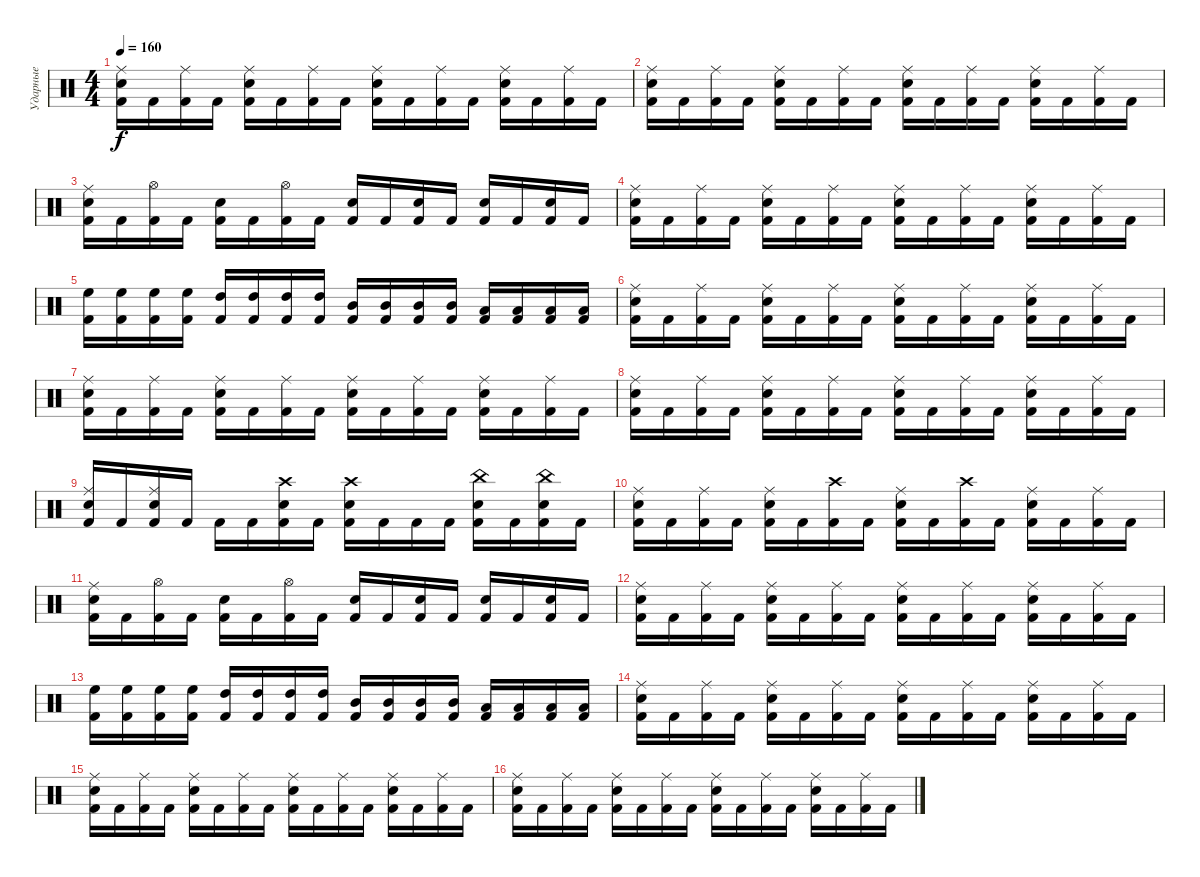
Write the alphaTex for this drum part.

\track ("Ударные" "Ударные") {instrument percussion}
\staff {score}
\articulation defaults
\ts (4 4)
\tempo 160
\clef neutral
\ks c
("Kick (hit) 2" "Ride (middle)" "Snare (hit) 2").16{dy f} "Kick (hit) 2".16 ("Kick (hit) 2" "Ride (middle)").16 "Kick (hit) 2".16 ("Kick (hit) 2" "Ride (middle)" "Snare (hit) 2").16 "Kick (hit) 2".16 ("Kick (hit) 2" "Ride (middle)").16 "Kick (hit) 2".16 ("Kick (hit) 2" "Ride (middle)" "Snare (hit) 2").16 "Kick (hit) 2".16 ("Kick (hit) 2" "Ride (middle)").16 "Kick (hit) 2".16 ("Kick (hit) 2" "Ride (middle)" "Snare (hit) 2").16 "Kick (hit) 2".16 ("Kick (hit) 2" "Ride (middle)").16 "Kick (hit) 2".16 |
("Kick (hit) 2" "Ride (middle)" "Snare (hit) 2").16 "Kick (hit) 2".16 ("Kick (hit) 2" "Ride (middle)").16 "Kick (hit) 2".16 ("Kick (hit) 2" "Ride (middle)" "Snare (hit) 2").16 "Kick (hit) 2".16 ("Kick (hit) 2" "Ride (middle)").16 "Kick (hit) 2".16 ("Kick (hit) 2" "Ride (middle)" "Snare (hit) 2").16 "Kick (hit) 2".16 ("Kick (hit) 2" "Ride (middle)").16 "Kick (hit) 2".16 ("Kick (hit) 2" "Ride (middle)" "Snare (hit) 2").16 "Kick (hit) 2".16 ("Kick (hit) 2" "Ride (middle)").16 "Kick (hit) 2".16 |
("Kick (hit) 2" "Ride (middle)" "Snare (hit) 2").16 "Kick (hit) 2".16 ("Kick (hit) 2" "Hi-Hat (open)").16 "Kick (hit) 2".16 ("Kick (hit) 2" "Snare (hit) 2").16 "Kick (hit) 2".16 ("Kick (hit) 2" "Hi-Hat (open)").16 "Kick (hit) 2".16 ("Kick (hit) 2" "Snare (hit) 2").16 "Kick (hit) 2".16 ("Kick (hit) 2" "Snare (hit) 2").16 "Kick (hit) 2".16 ("Kick (hit) 2" "Snare (hit) 2").16 "Kick (hit) 2".16 ("Kick (hit) 2" "Snare (hit) 2").16 "Kick (hit) 2".16 |
("Kick (hit) 2" "Ride (middle)" "Snare (hit) 2").16 "Kick (hit) 2".16 ("Kick (hit) 2" "Ride (middle)").16 "Kick (hit) 2".16 ("Kick (hit) 2" "Ride (middle)" "Snare (hit) 2").16 "Kick (hit) 2".16 ("Kick (hit) 2" "Ride (middle)").16 "Kick (hit) 2".16 ("Kick (hit) 2" "Ride (middle)" "Snare (hit) 2").16 "Kick (hit) 2".16 ("Kick (hit) 2" "Ride (middle)").16 "Kick (hit) 2".16 ("Kick (hit) 2" "Ride (middle)" "Snare (hit) 2").16 "Kick (hit) 2".16 ("Kick (hit) 2" "Ride (middle)").16 "Kick (hit) 2".16 |
("Kick (hit) 2" "High Floor Tom (hit)").16 ("Kick (hit) 2" "High Floor Tom (hit)").16 ("Kick (hit) 2" "High Floor Tom (hit)").16 ("Kick (hit) 2" "High Floor Tom (hit)").16 ("Kick (hit) 2" "High Tom (hit)").16 ("Kick (hit) 2" "High Tom (hit)").16 ("Kick (hit) 2" "High Tom (hit)").16 ("Kick (hit) 2" "High Tom (hit)").16 ("Kick (hit) 2" "Mid Tom (hit)").16 ("Kick (hit) 2" "Mid Tom (hit)").16 ("Kick (hit) 2" "Mid Tom (hit)").16 ("Kick (hit) 2" "Mid Tom (hit)").16 ("Kick (hit) 2" "Low Tom (hit)").16 ("Kick (hit) 2" "Low Tom (hit)").16 ("Kick (hit) 2" "Low Tom (hit)").16 ("Kick (hit) 2" "Low Tom (hit)").16 |
("Kick (hit) 2" "Ride (middle)" "Snare (hit) 2").16 "Kick (hit) 2".16 ("Kick (hit) 2" "Ride (middle)").16 "Kick (hit) 2".16 ("Kick (hit) 2" "Ride (middle)" "Snare (hit) 2").16 "Kick (hit) 2".16 ("Kick (hit) 2" "Ride (middle)").16 "Kick (hit) 2".16 ("Kick (hit) 2" "Ride (middle)" "Snare (hit) 2").16 "Kick (hit) 2".16 ("Kick (hit) 2" "Ride (middle)").16 "Kick (hit) 2".16 ("Kick (hit) 2" "Ride (middle)" "Snare (hit) 2").16 "Kick (hit) 2".16 ("Kick (hit) 2" "Ride (middle)").16 "Kick (hit) 2".16 |
("Kick (hit) 2" "Ride (middle)" "Snare (hit) 2").16 "Kick (hit) 2".16 ("Kick (hit) 2" "Ride (middle)").16 "Kick (hit) 2".16 ("Kick (hit) 2" "Ride (middle)" "Snare (hit) 2").16 "Kick (hit) 2".16 ("Kick (hit) 2" "Ride (middle)").16 "Kick (hit) 2".16 ("Kick (hit) 2" "Ride (middle)" "Snare (hit) 2").16 "Kick (hit) 2".16 ("Kick (hit) 2" "Ride (middle)").16 "Kick (hit) 2".16 ("Kick (hit) 2" "Ride (middle)" "Snare (hit) 2").16 "Kick (hit) 2".16 ("Kick (hit) 2" "Ride (middle)").16 "Kick (hit) 2".16 |
("Kick (hit) 2" "Ride (middle)" "Snare (hit) 2").16 "Kick (hit) 2".16 ("Kick (hit) 2" "Ride (middle)").16 "Kick (hit) 2".16 ("Kick (hit) 2" "Ride (middle)" "Snare (hit) 2").16 "Kick (hit) 2".16 ("Kick (hit) 2" "Ride (middle)").16 "Kick (hit) 2".16 ("Kick (hit) 2" "Ride (middle)" "Snare (hit) 2").16 "Kick (hit) 2".16 ("Kick (hit) 2" "Ride (middle)").16 "Kick (hit) 2".16 ("Kick (hit) 2" "Ride (middle)" "Snare (hit) 2").16 "Kick (hit) 2".16 ("Kick (hit) 2" "Ride (middle)").16 "Kick (hit) 2".16 |
("Kick (hit) 2" "Snare (hit) 2" "Ride (middle)").16 "Kick (hit) 2".16 ("Kick (hit) 2" "Snare (hit) 2" "Ride (middle)").16 "Kick (hit) 2".16 "Kick (hit) 2".16 "Kick (hit) 2".16 ("Kick (hit) 2" "Snare (hit) 2" "Crash high (hit)").16 "Kick (hit) 2".16 ("Kick (hit) 2" "Snare (hit) 2" "Crash high (hit)").16 "Kick (hit) 2".16 "Kick (hit) 2".16 "Kick (hit) 2".16 ("Kick (hit) 2" "Snare (hit) 2" "China (hit)").16 "Kick (hit) 2".16 ("Kick (hit) 2" "Snare (hit) 2" "China (hit)").16 "Kick (hit) 2".16 |
("Kick (hit) 2" "Ride (middle)" "Snare (hit) 2").16 "Kick (hit) 2".16 ("Kick (hit) 2" "Ride (middle)").16 "Kick (hit) 2".16 ("Kick (hit) 2" "Ride (middle)" "Snare (hit) 2").16 "Kick (hit) 2".16 ("Kick (hit) 2" "Crash high (hit)").16 "Kick (hit) 2".16 ("Kick (hit) 2" "Ride (middle)" "Snare (hit) 2").16 "Kick (hit) 2".16 ("Kick (hit) 2" "Crash high (hit)").16 "Kick (hit) 2".16 ("Kick (hit) 2" "Ride (middle)" "Snare (hit) 2").16 "Kick (hit) 2".16 ("Kick (hit) 2" "Ride (middle)").16 "Kick (hit) 2".16 |
("Kick (hit) 2" "Ride (middle)" "Snare (hit) 2").16 "Kick (hit) 2".16 ("Kick (hit) 2" "Hi-Hat (open)").16 "Kick (hit) 2".16 ("Kick (hit) 2" "Snare (hit) 2").16 "Kick (hit) 2".16 ("Kick (hit) 2" "Hi-Hat (open)").16 "Kick (hit) 2".16 ("Kick (hit) 2" "Snare (hit) 2").16 "Kick (hit) 2".16 ("Kick (hit) 2" "Snare (hit) 2").16 "Kick (hit) 2".16 ("Kick (hit) 2" "Snare (hit) 2").16 "Kick (hit) 2".16 ("Kick (hit) 2" "Snare (hit) 2").16 "Kick (hit) 2".16 |
("Kick (hit) 2" "Ride (middle)" "Snare (hit) 2").16 "Kick (hit) 2".16 ("Kick (hit) 2" "Ride (middle)").16 "Kick (hit) 2".16 ("Kick (hit) 2" "Ride (middle)" "Snare (hit) 2").16 "Kick (hit) 2".16 ("Kick (hit) 2" "Ride (middle)").16 "Kick (hit) 2".16 ("Kick (hit) 2" "Ride (middle)" "Snare (hit) 2").16 "Kick (hit) 2".16 ("Kick (hit) 2" "Ride (middle)").16 "Kick (hit) 2".16 ("Kick (hit) 2" "Ride (middle)" "Snare (hit) 2").16 "Kick (hit) 2".16 ("Kick (hit) 2" "Ride (middle)").16 "Kick (hit) 2".16 |
("Kick (hit) 2" "High Floor Tom (hit)").16 ("Kick (hit) 2" "High Floor Tom (hit)").16 ("Kick (hit) 2" "High Floor Tom (hit)").16 ("Kick (hit) 2" "High Floor Tom (hit)").16 ("Kick (hit) 2" "High Tom (hit)").16 ("Kick (hit) 2" "High Tom (hit)").16 ("Kick (hit) 2" "High Tom (hit)").16 ("Kick (hit) 2" "High Tom (hit)").16 ("Kick (hit) 2" "Mid Tom (hit)").16 ("Kick (hit) 2" "Mid Tom (hit)").16 ("Kick (hit) 2" "Mid Tom (hit)").16 ("Kick (hit) 2" "Mid Tom (hit)").16 ("Kick (hit) 2" "Low Tom (hit)").16 ("Kick (hit) 2" "Low Tom (hit)").16 ("Kick (hit) 2" "Low Tom (hit)").16 ("Kick (hit) 2" "Low Tom (hit)").16 |
("Kick (hit) 2" "Ride (middle)" "Snare (hit) 2").16 "Kick (hit) 2".16 ("Kick (hit) 2" "Ride (middle)").16 "Kick (hit) 2".16 ("Kick (hit) 2" "Ride (middle)" "Snare (hit) 2").16 "Kick (hit) 2".16 ("Kick (hit) 2" "Ride (middle)").16 "Kick (hit) 2".16 ("Kick (hit) 2" "Ride (middle)" "Snare (hit) 2").16 "Kick (hit) 2".16 ("Kick (hit) 2" "Ride (middle)").16 "Kick (hit) 2".16 ("Kick (hit) 2" "Ride (middle)" "Snare (hit) 2").16 "Kick (hit) 2".16 ("Kick (hit) 2" "Ride (middle)").16 "Kick (hit) 2".16 |
("Kick (hit) 2" "Ride (middle)" "Snare (hit) 2").16 "Kick (hit) 2".16 ("Kick (hit) 2" "Ride (middle)").16 "Kick (hit) 2".16 ("Kick (hit) 2" "Ride (middle)" "Snare (hit) 2").16 "Kick (hit) 2".16 ("Kick (hit) 2" "Ride (middle)").16 "Kick (hit) 2".16 ("Kick (hit) 2" "Ride (middle)" "Snare (hit) 2").16 "Kick (hit) 2".16 ("Kick (hit) 2" "Ride (middle)").16 "Kick (hit) 2".16 ("Kick (hit) 2" "Ride (middle)" "Snare (hit) 2").16 "Kick (hit) 2".16 ("Kick (hit) 2" "Ride (middle)").16 "Kick (hit) 2".16 |
("Kick (hit) 2" "Ride (middle)" "Snare (hit) 2").16 "Kick (hit) 2".16 ("Kick (hit) 2" "Ride (middle)").16 "Kick (hit) 2".16 ("Kick (hit) 2" "Ride (middle)" "Snare (hit) 2").16 "Kick (hit) 2".16 ("Kick (hit) 2" "Ride (middle)").16 "Kick (hit) 2".16 ("Kick (hit) 2" "Ride (middle)" "Snare (hit) 2").16 "Kick (hit) 2".16 ("Kick (hit) 2" "Ride (middle)").16 "Kick (hit) 2".16 ("Kick (hit) 2" "Ride (middle)" "Snare (hit) 2").16 "Kick (hit) 2".16 ("Kick (hit) 2" "Ride (middle)").16 "Kick (hit) 2".16
